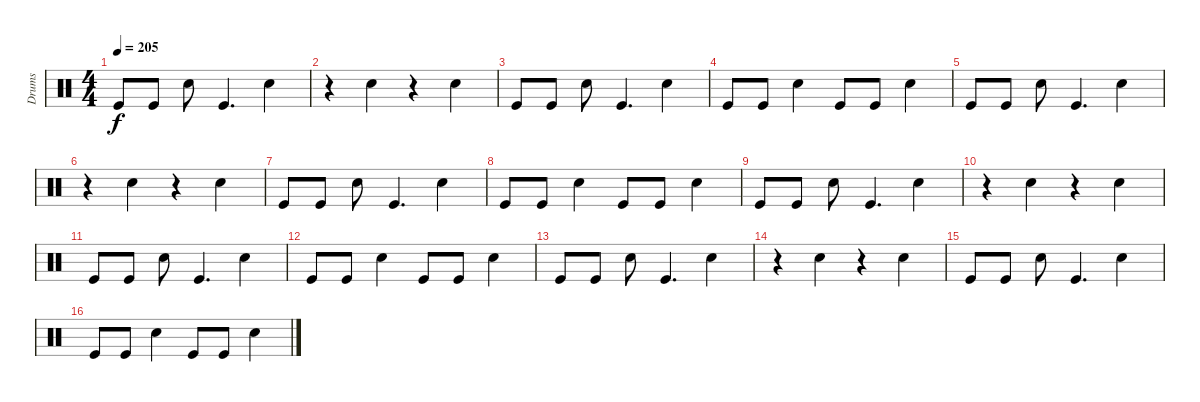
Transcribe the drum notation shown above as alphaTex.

\track ("Drums" "Drums") {instrument percussion}
\staff {score}
\articulation defaults
\ts (4 4)
\tempo 205
\clef neutral
\ks c "Kick (hit)".8{dy f} "Kick (hit)".8 "Electric Snare (hit)".8 "Kick (hit)".4{d} "Electric Snare (hit)".4
|
r.4 "Electric Snare (hit)".4 r.4 "Electric Snare (hit)".4 |
"Kick (hit)".8 "Kick (hit)".8 "Electric Snare (hit)".8 "Kick (hit)".4{d} "Electric Snare (hit)".4 |
"Kick (hit)".8 "Kick (hit)".8 "Electric Snare (hit)".4 "Kick (hit)".8 "Kick (hit)".8 "Electric Snare (hit)".4 |
"Kick (hit)".8 "Kick (hit)".8 "Electric Snare (hit)".8 "Kick (hit)".4{d} "Electric Snare (hit)".4 |
r.4 "Electric Snare (hit)".4 r.4 "Electric Snare (hit)".4 |
"Kick (hit)".8 "Kick (hit)".8 "Electric Snare (hit)".8 "Kick (hit)".4{d} "Electric Snare (hit)".4 |
"Kick (hit)".8 "Kick (hit)".8 "Electric Snare (hit)".4 "Kick (hit)".8 "Kick (hit)".8 "Electric Snare (hit)".4 |
"Kick (hit)".8 "Kick (hit)".8 "Electric Snare (hit)".8 "Kick (hit)".4{d} "Electric Snare (hit)".4 |
r.4 "Electric Snare (hit)".4 r.4 "Electric Snare (hit)".4 |
"Kick (hit)".8 "Kick (hit)".8 "Electric Snare (hit)".8 "Kick (hit)".4{d} "Electric Snare (hit)".4 |
"Kick (hit)".8 "Kick (hit)".8 "Electric Snare (hit)".4 "Kick (hit)".8 "Kick (hit)".8 "Electric Snare (hit)".4 |
"Kick (hit)".8 "Kick (hit)".8 "Electric Snare (hit)".8 "Kick (hit)".4{d} "Electric Snare (hit)".4 |
r.4 "Electric Snare (hit)".4 r.4 "Electric Snare (hit)".4 |
"Kick (hit)".8 "Kick (hit)".8 "Electric Snare (hit)".8 "Kick (hit)".4{d} "Electric Snare (hit)".4 |
"Kick (hit)".8 "Kick (hit)".8 "Electric Snare (hit)".4 "Kick (hit)".8 "Kick (hit)".8 "Electric Snare (hit)".4
